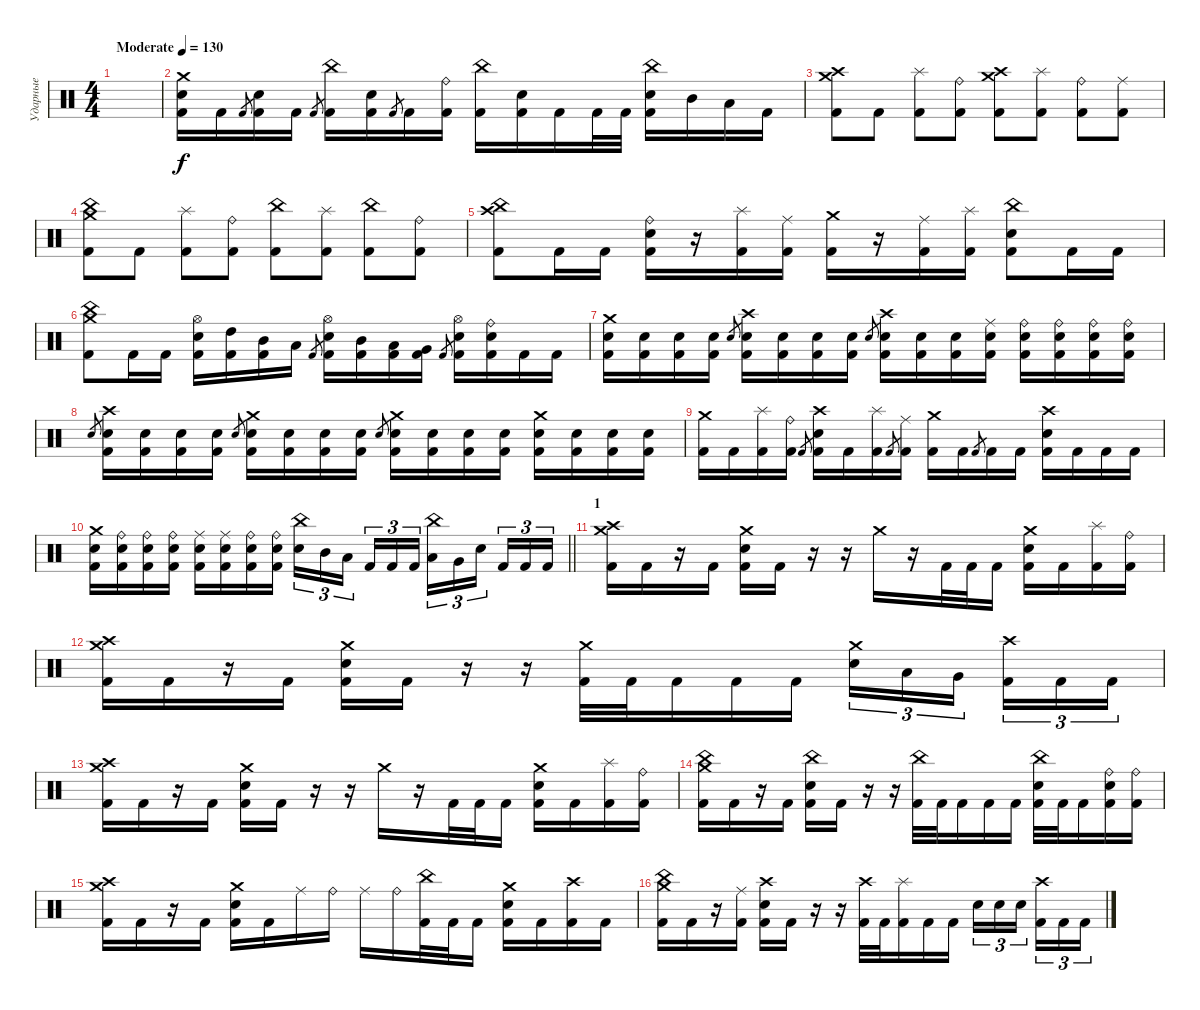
\track ("Ударные" "Ударные") {instrument percussion}
\staff {score}
\articulation defaults
\ts (4 4)
\tempo (130 "Moderate")
\clef neutral
\ks c
|
("Crash medium (hit)" "Electric Snare (hit)" "Kick (hit) 2").16 "Kick (hit) 2".16 "Kick (hit) 2".8{gr} ("Electric Snare (hit)" "Kick (hit) 2").16 "Kick (hit) 2".16 "Kick (hit) 2".8{gr} ("China (hit)" "Kick (hit) 2").16 ("Electric Snare (hit)" "Kick (hit) 2").16 "Kick (hit) 2".8{gr} "Kick (hit) 2".16 ("Ride (bell)" "Kick (hit) 2").16 ("China (hit)" "Kick (hit) 2").16 ("Electric Snare (hit)" "Kick (hit) 2").16 "Kick (hit) 2".16 "Kick (hit) 2".32 "Kick (hit) 2".32 ("China (hit)" "Electric Snare (hit)" "Kick (hit) 2").16 "Mid Tom (hit)".16 "Low Tom (hit)".16 "Kick (hit) 2".16 |
("Crash high (hit)" "Crash medium (hit)" "Kick (hit) 2").8 "Kick (hit) 2".8 ("Splash (hit)" "Kick (hit) 2").8 ("Ride (bell)" "Kick (hit) 2").8 ("Crash high (hit)" "Crash medium (hit)" "Kick (hit) 2").8 ("Splash (hit)" "Kick (hit) 2").8 ("Ride (bell)" "Kick (hit) 2").8 ("Ride (middle)" "Kick (hit) 2").8 |
("China (hit)" "Crash medium (hit)" "Kick (hit) 2").8 "Kick (hit) 2".8 ("Splash (hit)" "Kick (hit) 2").8 ("Ride (bell)" "Kick (hit) 2").8 ("China (hit)" "Kick (hit) 2").8 ("Splash (hit)" "Kick (hit) 2").8 ("China (hit)" "Kick (hit) 2").8 ("Ride (bell)" "Kick (hit) 2").8 |
("China (hit)" "Crash high (hit)" "Kick (hit) 2").8 "Kick (hit) 2".16 "Kick (hit) 2".16 ("Ride (bell)" "Electric Snare (hit)" "Kick (hit) 2").16 r.16 ("Splash (hit)" "Kick (hit) 2").16 ("Ride (middle)" "Kick (hit) 2").16 ("Crash medium (hit)" "Kick (hit) 2").16 r.16 ("Ride (middle)" "Kick (hit) 2").16 ("Splash (hit)" "Kick (hit) 2").16 ("China (hit)" "Electric Snare (hit)" "Kick (hit) 2").8 "Kick (hit) 2".16 "Kick (hit) 2".16 |
("Crash medium (hit)" "China (hit)" "Kick (hit) 2").8 "Kick (hit) 2".16 "Kick (hit) 2".16 ("Hi-Hat (open)" "Electric Snare (hit)" "Kick (hit) 2").16 ("High Tom (hit)" "Kick (hit) 2").16 ("Mid Tom (hit)" "Kick (hit) 2").16 "Low Tom (hit)".16 "Kick (hit) 2".8{gr} ("Hi-Hat (open)" "Electric Snare (hit)" "Kick (hit) 2").16 ("Mid Tom (hit)" "Kick (hit) 2").16 ("Low Tom (hit)" "Kick (hit) 2").16 ("Very Low Tom (hit)" "Kick (hit) 2").16 "Kick (hit) 2".8{gr} ("Hi-Hat (open)" "Electric Snare (hit)" "Kick (hit) 2").16 ("Ride (bell)" "Electric Snare (hit)" "Kick (hit) 2").16 "Kick (hit) 2".16 "Kick (hit) 2".16 |
("Crash medium (hit)" "Electric Snare (hit)" "Kick (hit) 2").16 ("Electric Snare (hit)" "Kick (hit) 2").16 ("Electric Snare (hit)" "Kick (hit) 2").16 ("Electric Snare (hit)" "Kick (hit) 2").16 "Electric Snare (hit)".8{gr} ("Crash high (hit)" "Electric Snare (hit)" "Kick (hit) 2").16 ("Electric Snare (hit)" "Kick (hit) 2").16 ("Electric Snare (hit)" "Kick (hit) 2").16 ("Electric Snare (hit)" "Kick (hit) 2").16 "Electric Snare (hit)".8{gr} ("Crash high (hit)" "Electric Snare (hit)" "Kick (hit) 2").16 ("Electric Snare (hit)" "Kick (hit) 2").16 ("Electric Snare (hit)" "Kick (hit) 2").16 ("Ride (middle)" "Electric Snare (hit)" "Kick (hit) 2").16 ("Ride (bell)" "Electric Snare (hit)" "Kick (hit) 2").16 ("Ride (bell)" "Electric Snare (hit)" "Kick (hit) 2").16 ("Ride (bell)" "Electric Snare (hit)" "Kick (hit) 2").16 ("Ride (bell)" "Electric Snare (hit)" "Kick (hit) 2").16 |
"Electric Snare (hit)".8{gr} ("Crash high (hit)" "Electric Snare (hit)" "Kick (hit) 2").16 ("Electric Snare (hit)" "Kick (hit) 2").16 ("Electric Snare (hit)" "Kick (hit) 2").16 ("Electric Snare (hit)" "Kick (hit) 2").16 "Electric Snare (hit)".8{gr} ("Crash medium (hit)" "Electric Snare (hit)" "Kick (hit) 2").16 ("Electric Snare (hit)" "Kick (hit) 2").16 ("Electric Snare (hit)" "Kick (hit) 2").16 ("Electric Snare (hit)" "Kick (hit) 2").16 "Electric Snare (hit)".8{gr} ("Crash medium (hit)" "Electric Snare (hit)" "Kick (hit) 2").16 ("Electric Snare (hit)" "Kick (hit) 2").16 ("Electric Snare (hit)" "Kick (hit) 2").16 ("Electric Snare (hit)" "Kick (hit) 2").16 ("Crash medium (hit)" "Electric Snare (hit)" "Kick (hit) 2").16 ("Electric Snare (hit)" "Kick (hit) 2").16 ("Electric Snare (hit)" "Kick (hit) 2").16 ("Electric Snare (hit)" "Kick (hit) 2").16 |
("Crash medium (hit)" "Kick (hit) 2").16 "Kick (hit) 2".16 ("Splash (hit)" "Kick (hit) 2").16 ("Ride (bell)" "Kick (hit) 2").16 "Kick (hit) 2".8{gr} ("Crash high (hit)" "Electric Snare (hit)" "Kick (hit) 2").16 "Kick (hit) 2".16 ("Splash (hit)" "Kick (hit) 2").16 "Kick (hit) 2".8{gr} ("Ride (middle)" "Kick (hit) 2").16 ("Crash medium (hit)" "Kick (hit) 2").16 "Kick (hit) 2".16 "Kick (hit) 2".8{gr} "Kick (hit) 2".16 "Kick (hit) 2".16 ("Crash high (hit)" "Electric Snare (hit)" "Kick (hit) 2").16 "Kick (hit) 2".16 "Kick (hit) 2".16 "Kick (hit) 2".16 |
\barLineRight lightlight
("Crash medium (hit)" "Electric Snare (hit)" "Kick (hit) 2").16 ("Ride (bell)" "Electric Snare (hit)" "Kick (hit) 2").16 ("Ride (bell)" "Electric Snare (hit)" "Kick (hit) 2").16 ("Ride (bell)" "Electric Snare (hit)" "Kick (hit) 2").16 ("Ride (middle)" "Electric Snare (hit)" "Kick (hit) 2").16 ("Ride (middle)" "Electric Snare (hit)" "Kick (hit) 2").16 ("Ride (bell)" "Electric Snare (hit)" "Kick (hit) 2").16 ("Ride (bell)" "Electric Snare (hit)" "Kick (hit) 2").16 ("China (hit)" "Electric Snare (hit)").16{tu (3 2)} "Mid Tom (hit)".16{tu (3 2)} "Low Tom (hit)".16{tu (3 2) beam splitsecondary} "Kick (hit) 2".16{tu (3 2)} "Kick (hit) 2".16{tu (3 2)} "Kick (hit) 2".16{tu (3 2)} ("China (hit)" "Low Tom (hit)").16{tu (3 2)} "Very Low Tom (hit)".16{tu (3 2)} "Electric Snare (hit)".16{tu (3 2) beam splitsecondary} "Kick (hit) 2".16{tu (3 2)} "Kick (hit) 2".16{tu (3 2)} "Kick (hit) 2".16{tu (3 2)} |
\section ("" "1 ")
("Crash medium (hit)" "Crash high (hit)" "Kick (hit) 2").16 "Kick (hit) 2".16 r.16 "Kick (hit) 2".16 ("Crash medium (hit)" "Electric Snare (hit)" "Kick (hit) 2").16 "Kick (hit) 2".16 r.16 r.16 "Crash medium (hit)".16 r.16 "Kick (hit) 2".32 "Kick (hit) 2".32 "Kick (hit) 2".16 ("Crash medium (hit)" "Electric Snare (hit)" "Kick (hit) 2").16 "Kick (hit) 2".16 ("Splash (hit)" "Kick (hit) 2").16 ("Ride (bell)" "Kick (hit) 2").16 |
("Crash medium (hit)" "Crash high (hit)" "Kick (hit) 2").16 "Kick (hit) 2".16 r.16 "Kick (hit) 2".16 ("Crash medium (hit)" "Electric Snare (hit)" "Kick (hit) 2").16 "Kick (hit) 2".16 r.16 r.16 ("Crash medium (hit)" "Kick (hit) 2").32 "Kick (hit) 2".32 "Kick (hit) 2".16 "Kick (hit) 2".16 "Kick (hit) 2".16 ("Crash medium (hit)" "Electric Snare (hit)").16{tu (3 2)} "Low Tom (hit)".16{tu (3 2)} "Very Low Tom (hit)".16{tu (3 2) beam splitsecondary} ("Crash high (hit)" "Kick (hit) 2").16{tu (3 2)} "Kick (hit) 2".16{tu (3 2)} "Kick (hit) 2".16{tu (3 2)} |
("Crash medium (hit)" "Crash high (hit)" "Kick (hit) 2").16 "Kick (hit) 2".16 r.16 "Kick (hit) 2".16 ("Crash medium (hit)" "Electric Snare (hit)" "Kick (hit) 2").16 "Kick (hit) 2".16 r.16 r.16 "Crash medium (hit)".16 r.16 "Kick (hit) 2".32 "Kick (hit) 2".32 "Kick (hit) 2".16 ("Crash medium (hit)" "Electric Snare (hit)" "Kick (hit) 2").16 "Kick (hit) 2".16 ("Splash (hit)" "Kick (hit) 2").16 ("Ride (bell)" "Kick (hit) 2").16 |
("China (hit)" "Crash medium (hit)" "Kick (hit) 2").16 "Kick (hit) 2".16 r.16 "Kick (hit) 2".16 ("China (hit)" "Electric Snare (hit)" "Kick (hit) 2").16 "Kick (hit) 2".16 r.16 r.16 ("China (hit)" "Kick (hit) 2").32 "Kick (hit) 2".32 "Kick (hit) 2".16 "Kick (hit) 2".16 "Kick (hit) 2".16 ("China (hit)" "Electric Snare (hit)" "Kick (hit) 2").32 "Kick (hit) 2".32 "Kick (hit) 2".16 ("Ride (bell)" "Electric Snare (hit)" "Kick (hit) 2").16 ("Ride (bell)" "Kick (hit) 2").16 |
("Crash medium (hit)" "Crash high (hit)" "Kick (hit) 2").16 "Kick (hit) 2".16 r.16 "Kick (hit) 2".16 ("Crash medium (hit)" "Electric Snare (hit)" "Kick (hit) 2").16 "Kick (hit) 2".16 "Ride (middle)".16 "Ride (bell)".16 "Ride (middle)".16 "Ride (bell)".16 ("China (hit)" "Kick (hit) 2").32 "Kick (hit) 2".32 "Kick (hit) 2".16 ("Crash medium (hit)" "Electric Snare (hit)" "Kick (hit) 2").16 "Kick (hit) 2".16 ("Crash high (hit)" "Kick (hit) 2").16 "Kick (hit) 2".16 |
("China (hit)" "Crash medium (hit)" "Kick (hit) 2").16 "Kick (hit) 2".16 r.16 ("Ride (middle)" "Kick (hit) 2").16 ("Crash high (hit)" "Electric Snare (hit)" "Kick (hit) 2").16 "Kick (hit) 2".16 r.16 r.16 ("Crash high (hit)" "Kick (hit) 2").32 "Kick (hit) 2".32 ("Splash (hit)" "Kick (hit) 2").16 "Kick (hit) 2".16 "Kick (hit) 2".16 "Electric Snare (hit)".16{tu (3 2)} "Electric Snare (hit)".16{tu (3 2)} "Electric Snare (hit)".16{tu (3 2) beam splitsecondary} ("Crash high (hit)" "Kick (hit) 2").16{tu (3 2)} "Kick (hit) 2".16{tu (3 2)} "Kick (hit) 2".16{tu (3 2)}
